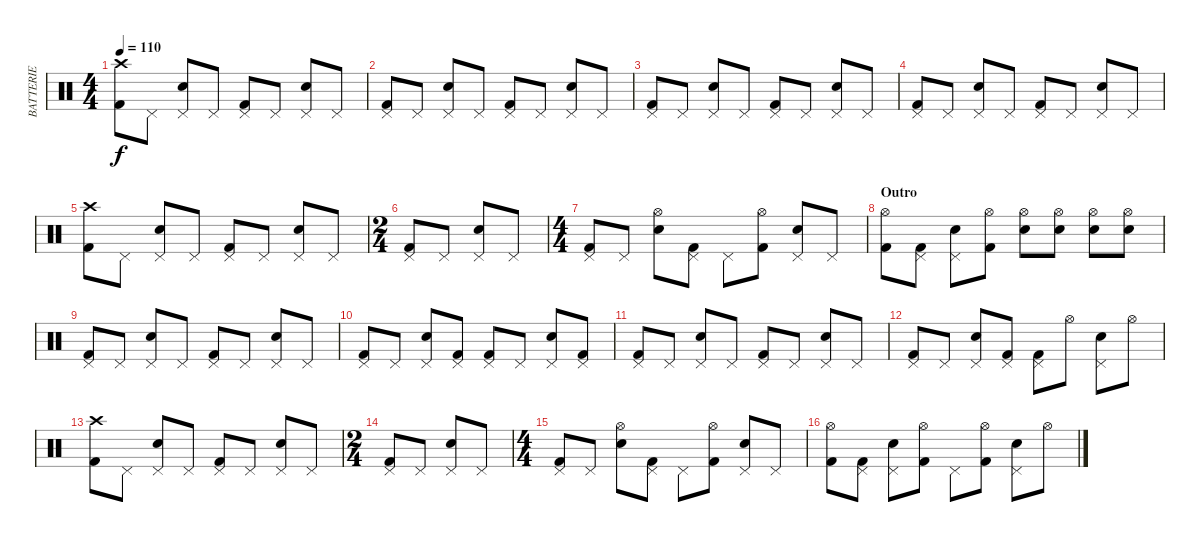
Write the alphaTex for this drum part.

\track ("BATTERIE" "BATTERIE") {instrument percussion}
\staff {score}
\articulation defaults
\ts (4 4)
\tempo 110
\clef neutral
\ks c
("Crash high (hit)" "Kick (hit) 2").8{dy f} "Pedal Hi-Hat (hit)".8 ("Pedal Hi-Hat (hit)" "Snare (hit) 2").8 "Pedal Hi-Hat (hit)".8 ("Pedal Hi-Hat (hit)" "Kick (hit) 2").8 "Pedal Hi-Hat (hit)".8 ("Pedal Hi-Hat (hit)" "Snare (hit) 2").8 "Pedal Hi-Hat (hit)".8 |
("Pedal Hi-Hat (hit)" "Kick (hit) 2").8 "Pedal Hi-Hat (hit)".8 ("Pedal Hi-Hat (hit)" "Snare (hit) 2").8 "Pedal Hi-Hat (hit)".8 ("Pedal Hi-Hat (hit)" "Kick (hit) 2").8 "Pedal Hi-Hat (hit)".8 ("Pedal Hi-Hat (hit)" "Snare (hit) 2").8 "Pedal Hi-Hat (hit)".8 |
("Pedal Hi-Hat (hit)" "Kick (hit) 2").8 "Pedal Hi-Hat (hit)".8 ("Pedal Hi-Hat (hit)" "Snare (hit) 2").8 "Pedal Hi-Hat (hit)".8 ("Pedal Hi-Hat (hit)" "Kick (hit) 2").8 "Pedal Hi-Hat (hit)".8 ("Pedal Hi-Hat (hit)" "Snare (hit) 2").8 "Pedal Hi-Hat (hit)".8 |
("Pedal Hi-Hat (hit)" "Kick (hit) 2").8 "Pedal Hi-Hat (hit)".8 ("Pedal Hi-Hat (hit)" "Snare (hit) 2").8 "Pedal Hi-Hat (hit)".8 ("Pedal Hi-Hat (hit)" "Kick (hit) 2").8 "Pedal Hi-Hat (hit)".8 ("Pedal Hi-Hat (hit)" "Snare (hit) 2").8 "Pedal Hi-Hat (hit)".8 |
("Crash high (hit)" "Kick (hit) 2").8 "Pedal Hi-Hat (hit)".8 ("Pedal Hi-Hat (hit)" "Snare (hit) 2").8 "Pedal Hi-Hat (hit)".8 ("Pedal Hi-Hat (hit)" "Kick (hit) 2").8 "Pedal Hi-Hat (hit)".8 ("Pedal Hi-Hat (hit)" "Snare (hit) 2").8 "Pedal Hi-Hat (hit)".8 |
\ts (2 4)
("Pedal Hi-Hat (hit)" "Kick (hit) 2").8 "Pedal Hi-Hat (hit)".8 ("Pedal Hi-Hat (hit)" "Snare (hit) 2").8 "Pedal Hi-Hat (hit)".8 |
\ts (4 4)
("Pedal Hi-Hat (hit)" "Kick (hit) 2").8 "Pedal Hi-Hat (hit)".8 ("Hi-Hat (open)" "Snare (hit) 2").8 ("Pedal Hi-Hat (hit)" "Kick (hit) 2").8 "Pedal Hi-Hat (hit)".8 ("Hi-Hat (open)" "Kick (hit) 2").8 ("Pedal Hi-Hat (hit)" "Snare (hit) 2").8 "Pedal Hi-Hat (hit)".8 |
\section ("" "Outro")
("Hi-Hat (open)" "Kick (hit) 2").8 ("Pedal Hi-Hat (hit)" "Kick (hit) 2").8 ("Pedal Hi-Hat (hit)" "Snare (hit) 2").8 ("Hi-Hat (open)" "Kick (hit) 2").8 ("Hi-Hat (open)" "Snare (hit) 2").8 ("Hi-Hat (open)" "Snare (hit) 2").8 ("Hi-Hat (open)" "Snare (hit) 2").8 ("Hi-Hat (open)" "Snare (hit) 2").8 |
("Pedal Hi-Hat (hit)" "Kick (hit) 2").8 "Pedal Hi-Hat (hit)".8 ("Pedal Hi-Hat (hit)" "Snare (hit) 2").8 "Pedal Hi-Hat (hit)".8 ("Pedal Hi-Hat (hit)" "Kick (hit) 2").8 "Pedal Hi-Hat (hit)".8 ("Pedal Hi-Hat (hit)" "Snare (hit) 2").8 "Pedal Hi-Hat (hit)".8 |
("Pedal Hi-Hat (hit)" "Kick (hit) 2").8 "Pedal Hi-Hat (hit)".8 ("Pedal Hi-Hat (hit)" "Snare (hit) 2").8 ("Pedal Hi-Hat (hit)" "Kick (hit) 2").8 ("Pedal Hi-Hat (hit)" "Kick (hit) 2").8 "Pedal Hi-Hat (hit)".8 ("Pedal Hi-Hat (hit)" "Snare (hit) 2").8 ("Pedal Hi-Hat (hit)" "Kick (hit) 2").8 |
("Pedal Hi-Hat (hit)" "Kick (hit) 2").8 "Pedal Hi-Hat (hit)".8 ("Pedal Hi-Hat (hit)" "Snare (hit) 2").8 "Pedal Hi-Hat (hit)".8 ("Pedal Hi-Hat (hit)" "Kick (hit) 2").8 "Pedal Hi-Hat (hit)".8 ("Pedal Hi-Hat (hit)" "Snare (hit) 2").8 "Pedal Hi-Hat (hit)".8 |
("Pedal Hi-Hat (hit)" "Kick (hit) 2").8 "Pedal Hi-Hat (hit)".8 ("Pedal Hi-Hat (hit)" "Snare (hit) 2").8 ("Pedal Hi-Hat (hit)" "Kick (hit) 2").8 ("Pedal Hi-Hat (hit)" "Kick (hit) 2").8 "Hi-Hat (open)".8 ("Pedal Hi-Hat (hit)" "Snare (hit) 2").8 "Hi-Hat (open)".8 |
("Crash high (hit)" "Kick (hit) 2").8 "Pedal Hi-Hat (hit)".8 ("Pedal Hi-Hat (hit)" "Snare (hit) 2").8 "Pedal Hi-Hat (hit)".8 ("Pedal Hi-Hat (hit)" "Kick (hit) 2").8 "Pedal Hi-Hat (hit)".8 ("Pedal Hi-Hat (hit)" "Snare (hit) 2").8 "Pedal Hi-Hat (hit)".8 |
\ts (2 4)
("Pedal Hi-Hat (hit)" "Kick (hit) 2").8 "Pedal Hi-Hat (hit)".8 ("Pedal Hi-Hat (hit)" "Snare (hit) 2").8 "Pedal Hi-Hat (hit)".8 |
\ts (4 4)
("Pedal Hi-Hat (hit)" "Kick (hit) 2").8{volume 10} "Pedal Hi-Hat (hit)".8 ("Hi-Hat (open)" "Snare (hit) 2").8 ("Pedal Hi-Hat (hit)" "Kick (hit) 2").8 "Pedal Hi-Hat (hit)".8 ("Hi-Hat (open)" "Kick (hit) 2").8 ("Pedal Hi-Hat (hit)" "Snare (hit) 2").8 "Pedal Hi-Hat (hit)".8 |
("Hi-Hat (open)" "Kick (hit) 2").8{volume 9} ("Pedal Hi-Hat (hit)" "Kick (hit) 2").8 ("Pedal Hi-Hat (hit)" "Snare (hit) 2").8 ("Hi-Hat (open)" "Kick (hit) 2").8 "Pedal Hi-Hat (hit)".8 ("Hi-Hat (open)" "Kick (hit) 2").8 ("Pedal Hi-Hat (hit)" "Snare (hit) 2").8 "Hi-Hat (open)".8
